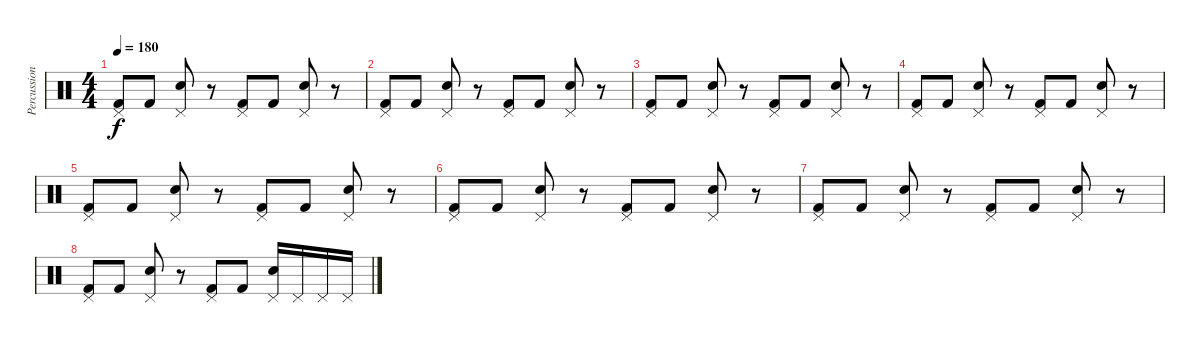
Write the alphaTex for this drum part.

\track ("Percussion" "Percussion") {instrument percussion}
\staff {score}
\articulation defaults
\ts (4 4)
\tempo 180
\clef neutral
\ks c
("Pedal Hi-Hat (hit)" "Kick (hit) 2").8{dy f} "Kick (hit) 2".8 ("Pedal Hi-Hat (hit)" "Electric Snare (hit)").8 r.8 ("Pedal Hi-Hat (hit)" "Kick (hit) 2").8 "Kick (hit) 2".8 ("Pedal Hi-Hat (hit)" "Electric Snare (hit)").8 r.8 |
("Pedal Hi-Hat (hit)" "Kick (hit) 2").8 "Kick (hit) 2".8 ("Pedal Hi-Hat (hit)" "Electric Snare (hit)").8 r.8 ("Pedal Hi-Hat (hit)" "Kick (hit) 2").8 "Kick (hit) 2".8 ("Pedal Hi-Hat (hit)" "Electric Snare (hit)").8 r.8 |
("Pedal Hi-Hat (hit)" "Kick (hit) 2").8 "Kick (hit) 2".8 ("Pedal Hi-Hat (hit)" "Electric Snare (hit)").8 r.8 ("Pedal Hi-Hat (hit)" "Kick (hit) 2").8 "Kick (hit) 2".8 ("Pedal Hi-Hat (hit)" "Electric Snare (hit)").8 r.8 |
("Pedal Hi-Hat (hit)" "Kick (hit) 2").8 "Kick (hit) 2".8 ("Pedal Hi-Hat (hit)" "Electric Snare (hit)").8 r.8 ("Pedal Hi-Hat (hit)" "Kick (hit) 2").8 "Kick (hit) 2".8 ("Pedal Hi-Hat (hit)" "Electric Snare (hit)").8 r.8 |
("Pedal Hi-Hat (hit)" "Kick (hit) 2").8 "Kick (hit) 2".8 ("Pedal Hi-Hat (hit)" "Electric Snare (hit)").8 r.8 ("Pedal Hi-Hat (hit)" "Kick (hit) 2").8 "Kick (hit) 2".8 ("Pedal Hi-Hat (hit)" "Electric Snare (hit)").8 r.8 |
("Pedal Hi-Hat (hit)" "Kick (hit) 2").8 "Kick (hit) 2".8 ("Pedal Hi-Hat (hit)" "Electric Snare (hit)").8 r.8 ("Pedal Hi-Hat (hit)" "Kick (hit) 2").8 "Kick (hit) 2".8 ("Pedal Hi-Hat (hit)" "Electric Snare (hit)").8 r.8 |
("Pedal Hi-Hat (hit)" "Kick (hit) 2").8 "Kick (hit) 2".8 ("Pedal Hi-Hat (hit)" "Electric Snare (hit)").8 r.8 ("Pedal Hi-Hat (hit)" "Kick (hit) 2").8 "Kick (hit) 2".8 ("Pedal Hi-Hat (hit)" "Electric Snare (hit)").8 r.8 |
("Pedal Hi-Hat (hit)" "Kick (hit) 2").8 "Kick (hit) 2".8 ("Pedal Hi-Hat (hit)" "Electric Snare (hit)").8 r.8 ("Pedal Hi-Hat (hit)" "Kick (hit) 2").8 "Kick (hit) 2".8 ("Pedal Hi-Hat (hit)" "Electric Snare (hit)").16 "Pedal Hi-Hat (hit)".16 "Pedal Hi-Hat (hit)".16 "Pedal Hi-Hat (hit)".16
